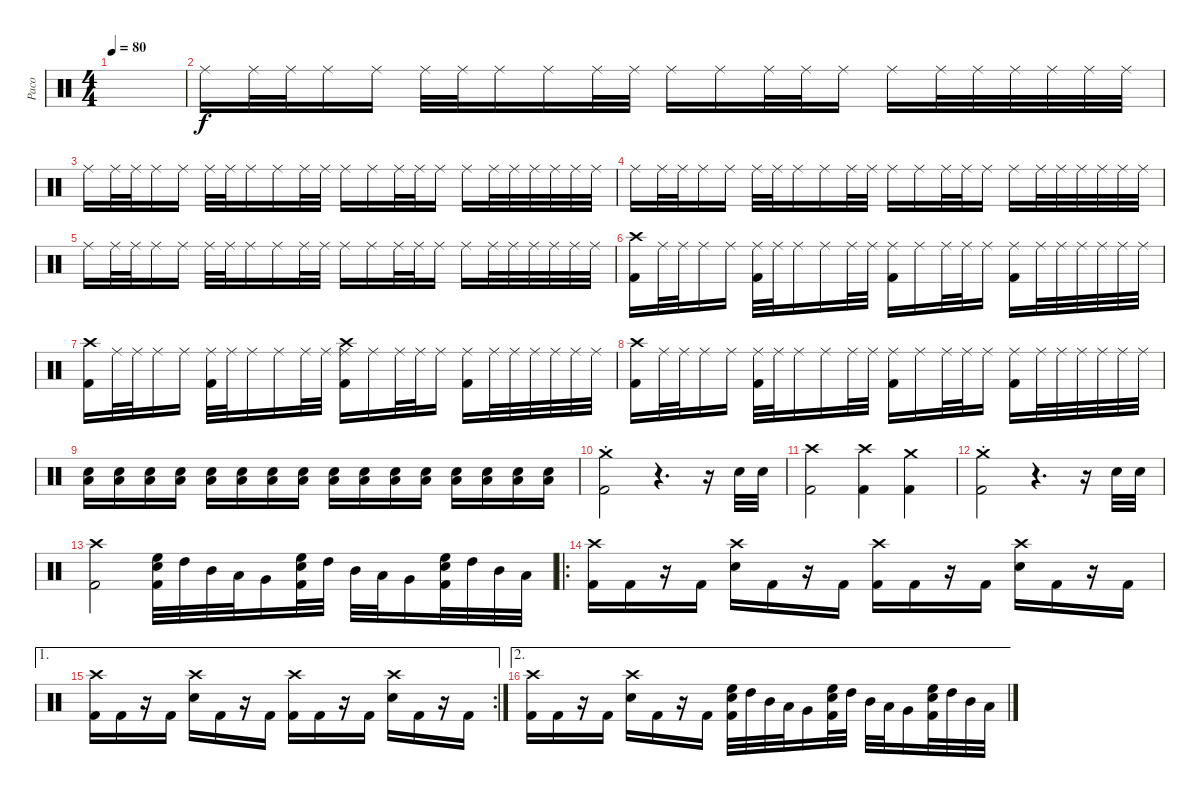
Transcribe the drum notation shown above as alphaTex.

\track ("Paco" "Paco") {instrument percussion}
\staff {score}
\articulation defaults
\ts (4 4)
\tempo 80
\clef neutral
\ks c
|
"Ride (middle)".16 "Ride (middle)".32 "Ride (middle)".32 "Ride (middle)".16 "Ride (middle)".16 "Ride (middle)".32 "Ride (middle)".32 "Ride (middle)".16 "Ride (middle)".16 "Ride (middle)".32 "Ride (middle)".32 "Ride (middle)".16 "Ride (middle)".16 "Ride (middle)".32 "Ride (middle)".32 "Ride (middle)".16 "Ride (middle)".16 "Ride (middle)".32 "Ride (middle)".32 "Ride (middle)".32 "Ride (middle)".32 "Ride (middle)".32 "Ride (middle)".32 |
"Ride (middle)".16 "Ride (middle)".32 "Ride (middle)".32 "Ride (middle)".16 "Ride (middle)".16 "Ride (middle)".32 "Ride (middle)".32 "Ride (middle)".16 "Ride (middle)".16 "Ride (middle)".32 "Ride (middle)".32 "Ride (middle)".16 "Ride (middle)".16 "Ride (middle)".32 "Ride (middle)".32 "Ride (middle)".16 "Ride (middle)".16 "Ride (middle)".32 "Ride (middle)".32 "Ride (middle)".32 "Ride (middle)".32 "Ride (middle)".32 "Ride (middle)".32 |
"Ride (middle)".16 "Ride (middle)".32 "Ride (middle)".32 "Ride (middle)".16 "Ride (middle)".16 "Ride (middle)".32 "Ride (middle)".32 "Ride (middle)".16 "Ride (middle)".16 "Ride (middle)".32 "Ride (middle)".32 "Ride (middle)".16 "Ride (middle)".16 "Ride (middle)".32 "Ride (middle)".32 "Ride (middle)".16 "Ride (middle)".16 "Ride (middle)".32 "Ride (middle)".32 "Ride (middle)".32 "Ride (middle)".32 "Ride (middle)".32 "Ride (middle)".32 |
"Ride (middle)".16 "Ride (middle)".32 "Ride (middle)".32 "Ride (middle)".16 "Ride (middle)".16 "Ride (middle)".32 "Ride (middle)".32 "Ride (middle)".16 "Ride (middle)".16 "Ride (middle)".32 "Ride (middle)".32 "Ride (middle)".16 "Ride (middle)".16 "Ride (middle)".32 "Ride (middle)".32 "Ride (middle)".16 "Ride (middle)".16 "Ride (middle)".32 "Ride (middle)".32 "Ride (middle)".32 "Ride (middle)".32 "Ride (middle)".32 "Ride (middle)".32 |
("Crash high (hit)" "Kick (hit) 2").16 "Ride (middle)".32 "Ride (middle)".32 "Ride (middle)".16 "Ride (middle)".16 ("Ride (middle)" "Kick (hit) 2").32 "Ride (middle)".32 "Ride (middle)".16 "Ride (middle)".16 "Ride (middle)".32 "Ride (middle)".32 ("Ride (middle)" "Kick (hit) 2").16 "Ride (middle)".16 "Ride (middle)".32 "Ride (middle)".32 "Ride (middle)".16 ("Ride (middle)" "Kick (hit) 2").16 "Ride (middle)".32 "Ride (middle)".32 "Ride (middle)".32 "Ride (middle)".32 "Ride (middle)".32 "Ride (middle)".32 |
("Crash high (hit)" "Kick (hit) 2").16 "Ride (middle)".32 "Ride (middle)".32 "Ride (middle)".16 "Ride (middle)".16 ("Ride (middle)" "Kick (hit) 2").32 "Ride (middle)".32 "Ride (middle)".16 "Ride (middle)".16 "Ride (middle)".32 "Ride (middle)".32 ("Crash high (hit)" "Ride (middle)" "Kick (hit) 2").16 "Ride (middle)".16 "Ride (middle)".32 "Ride (middle)".32 "Ride (middle)".16 ("Ride (middle)" "Kick (hit) 2").16 "Ride (middle)".32 "Ride (middle)".32 "Ride (middle)".32 "Ride (middle)".32 "Ride (middle)".32 "Ride (middle)".32 |
("Crash high (hit)" "Kick (hit) 2").16 "Ride (middle)".32 "Ride (middle)".32 "Ride (middle)".16 "Ride (middle)".16 ("Ride (middle)" "Kick (hit) 2").32 "Ride (middle)".32 "Ride (middle)".16 "Ride (middle)".16 "Ride (middle)".32 "Ride (middle)".32 ("Ride (middle)" "Kick (hit) 2").16 "Ride (middle)".16 "Ride (middle)".32 "Ride (middle)".32 "Ride (middle)".16 ("Ride (middle)" "Kick (hit) 2").16 "Ride (middle)".32 "Ride (middle)".32 "Ride (middle)".32 "Ride (middle)".32 "Ride (middle)".32 "Ride (middle)".32 |
("Electric Snare (hit)" "Low Floor Tom (hit)").16{volume 5} ("Electric Snare (hit)" "Low Floor Tom (hit)").16{volume 13} ("Electric Snare (hit)" "Low Floor Tom (hit)").16 ("Electric Snare (hit)" "Low Floor Tom (hit)").16 ("Electric Snare (hit)" "Low Floor Tom (hit)").16 ("Electric Snare (hit)" "Low Floor Tom (hit)").16 ("Electric Snare (hit)" "Low Floor Tom (hit)").16 ("Electric Snare (hit)" "Low Floor Tom (hit)").16 ("Electric Snare (hit)" "Low Floor Tom (hit)").16 ("Electric Snare (hit)" "Low Floor Tom (hit)").16 ("Electric Snare (hit)" "Low Floor Tom (hit)").16 ("Electric Snare (hit)" "Low Floor Tom (hit)").16 ("Electric Snare (hit)" "Low Floor Tom (hit)").16 ("Electric Snare (hit)" "Low Floor Tom (hit)").16 ("Electric Snare (hit)" "Low Floor Tom (hit)").16 ("Electric Snare (hit)" "Low Floor Tom (hit)").16 |
("Crash medium (hit)" "Kick (hit) 2"{st}).2 r.4{d} r.16 "Electric Snare (hit)".32 "Electric Snare (hit)".32 |
("Crash high (hit)" "Kick (hit) 2").2 ("Crash high (hit)" "Kick (hit) 2").4 ("Crash medium (hit)" "Kick (hit) 2").4 |
("Crash medium (hit)" "Kick (hit) 2"{st}).2 r.4{d} r.16 "Electric Snare (hit)".32 "Electric Snare (hit)".32 |
("Crash high (hit)" "Kick (hit) 2").2 ("High Floor Tom (hit)" "Electric Snare (hit)" "Kick (hit) 2").32 "High Tom (hit)".32 "Mid Tom (hit)".32 "Low Tom (hit)".32 "Very Low Tom (hit)".16 ("High Floor Tom (hit)" "Electric Snare (hit)" "Kick (hit) 2").32 "High Tom (hit)".32 "Mid Tom (hit)".32 "Low Tom (hit)".32 "Very Low Tom (hit)".16 ("High Floor Tom (hit)" "Electric Snare (hit)" "Kick (hit) 2").32 "High Tom (hit)".32 "Mid Tom (hit)".32 "Low Tom (hit)".32 |
\ro
("Crash high (hit)" "Kick (hit) 2").16 "Kick (hit) 2".16 r.16 "Kick (hit) 2".16 ("Crash high (hit)" "Electric Snare (hit)").16 "Kick (hit) 2".16 r.16 "Kick (hit) 2".16 ("Crash high (hit)" "Kick (hit) 2").16 "Kick (hit) 2".16 r.16 "Kick (hit) 2".16 ("Crash high (hit)" "Electric Snare (hit)").16 "Kick (hit) 2".16 r.16 "Kick (hit) 2".16 |
\ae 1
\rc 2
("Crash high (hit)" "Kick (hit) 2").16 "Kick (hit) 2".16 r.16 "Kick (hit) 2".16 ("Crash high (hit)" "Electric Snare (hit)").16 "Kick (hit) 2".16 r.16 "Kick (hit) 2".16 ("Crash high (hit)" "Kick (hit) 2").16 "Kick (hit) 2".16 r.16 "Kick (hit) 2".16 ("Crash high (hit)" "Electric Snare (hit)").16 "Kick (hit) 2".16 r.16 "Kick (hit) 2".16 |
\ae 2
("Crash high (hit)" "Kick (hit) 2").16 "Kick (hit) 2".16 r.16 "Kick (hit) 2".16 ("Crash high (hit)" "Electric Snare (hit)").16 "Kick (hit) 2".16 r.16 "Kick (hit) 2".16 ("High Floor Tom (hit)" "Electric Snare (hit)" "Kick (hit) 2").32 "High Tom (hit)".32 "Mid Tom (hit)".32 "Low Tom (hit)".32 "Very Low Tom (hit)".16 ("High Floor Tom (hit)" "Electric Snare (hit)" "Kick (hit) 2").32 "High Tom (hit)".32 "Mid Tom (hit)".32 "Low Tom (hit)".32 "Very Low Tom (hit)".16 ("High Floor Tom (hit)" "Electric Snare (hit)" "Kick (hit) 2").32 "High Tom (hit)".32 "Mid Tom (hit)".32 "Low Tom (hit)".32
